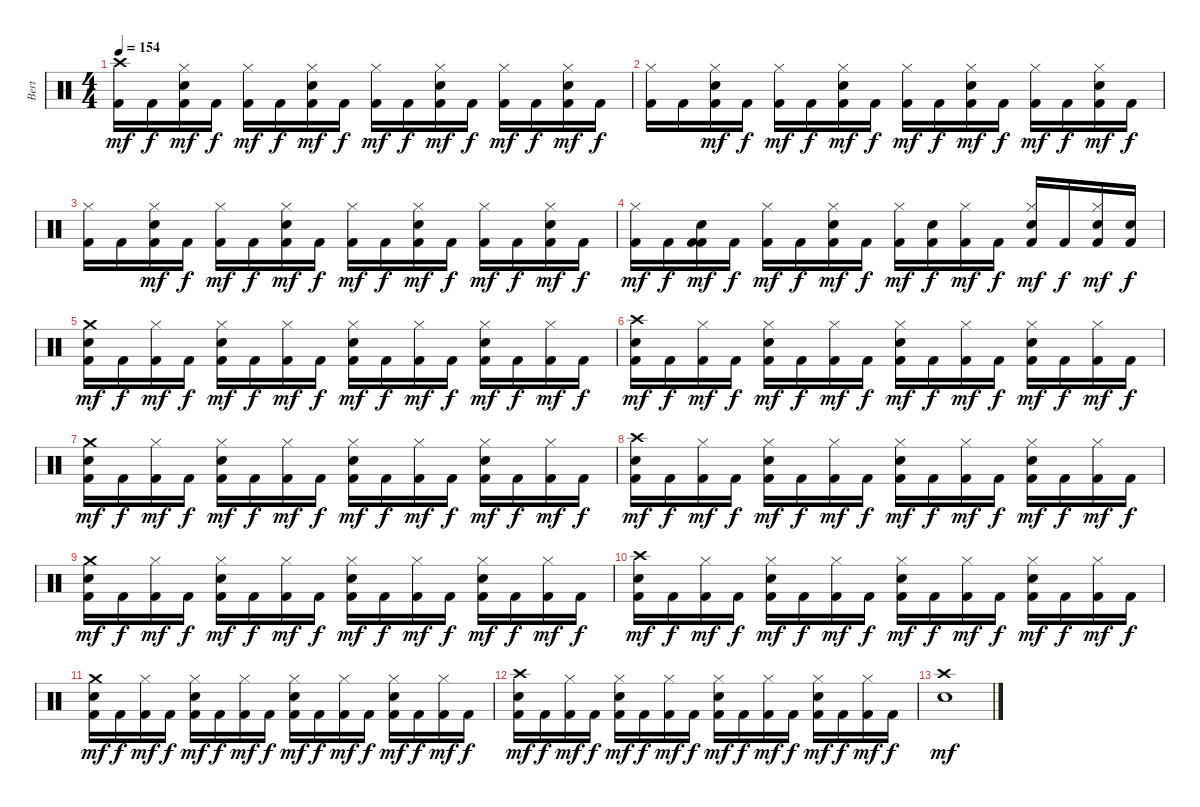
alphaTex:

\track ("Bert" "Bert") {instrument percussion}
\staff {score}
\articulation defaults
\ts (4 4)
\tempo 154
\clef neutral
\ks c
("Crash high (hit)" "Kick (hit) 2").16{dy mf} "Kick (hit) 2".16{dy f} ("Hi-Hat (closed)" "Snare (hit) 2" "Kick (hit) 2").16{dy mf} "Kick (hit) 2".16{dy f} ("Hi-Hat (closed)" "Kick (hit) 2").16{dy mf} "Kick (hit) 2".16{dy f} ("Hi-Hat (closed)" "Snare (hit) 2" "Kick (hit) 2").16{dy mf} "Kick (hit) 2".16{dy f} ("Hi-Hat (closed)" "Kick (hit) 2").16{dy mf} "Kick (hit) 2".16{dy f} ("Hi-Hat (closed)" "Snare (hit) 2" "Kick (hit) 2").16{dy mf} "Kick (hit) 2".16{dy f} ("Hi-Hat (closed)" "Kick (hit) 2").16{dy mf} "Kick (hit) 2".16{dy f} ("Hi-Hat (closed)" "Snare (hit) 2" "Kick (hit) 2").16{dy mf} "Kick (hit) 2".16{dy f} |
("Hi-Hat (closed)" "Kick (hit) 2").16 "Kick (hit) 2".16 ("Hi-Hat (closed)" "Snare (hit) 2" "Kick (hit) 2").16{dy mf} "Kick (hit) 2".16{dy f} ("Hi-Hat (closed)" "Kick (hit) 2").16{dy mf} "Kick (hit) 2".16{dy f} ("Hi-Hat (closed)" "Snare (hit) 2" "Kick (hit) 2").16{dy mf} "Kick (hit) 2".16{dy f} ("Hi-Hat (closed)" "Kick (hit) 2").16{dy mf} "Kick (hit) 2".16{dy f} ("Hi-Hat (closed)" "Snare (hit) 2" "Kick (hit) 2").16{dy mf} "Kick (hit) 2".16{dy f} ("Hi-Hat (closed)" "Kick (hit) 2").16{dy mf} "Kick (hit) 2".16{dy f} ("Hi-Hat (closed)" "Snare (hit) 2" "Kick (hit) 2").16{dy mf} "Kick (hit) 2".16{dy f} |
("Hi-Hat (closed)" "Kick (hit) 2").16 "Kick (hit) 2".16 ("Hi-Hat (closed)" "Snare (hit) 2" "Kick (hit) 2").16{dy mf} "Kick (hit) 2".16{dy f} ("Hi-Hat (closed)" "Kick (hit) 2").16{dy mf} "Kick (hit) 2".16{dy f} ("Hi-Hat (closed)" "Snare (hit) 2" "Kick (hit) 2").16{dy mf} "Kick (hit) 2".16{dy f} ("Hi-Hat (closed)" "Kick (hit) 2").16{dy mf} "Kick (hit) 2".16{dy f} ("Hi-Hat (closed)" "Snare (hit) 2" "Kick (hit) 2").16{dy mf} "Kick (hit) 2".16{dy f} ("Hi-Hat (closed)" "Kick (hit) 2").16{dy mf} "Kick (hit) 2".16{dy f} ("Hi-Hat (closed)" "Snare (hit) 2" "Kick (hit) 2").16{dy mf} "Kick (hit) 2".16{dy f} |
("Hi-Hat (closed)" "Kick (hit) 2").16{dy mf} "Kick (hit) 2".16{dy f} ("Kick (hit) 2" "Snare (hit) 2" "Kick (hit) 2").16{dy mf} "Kick (hit) 2".16{dy f} ("Hi-Hat (closed)" "Kick (hit) 2").16{dy mf} "Kick (hit) 2".16{dy f} ("Hi-Hat (closed)" "Snare (hit) 2" "Kick (hit) 2").16{dy mf} "Kick (hit) 2".16{dy f} ("Hi-Hat (closed)" "Kick (hit) 2").16{dy mf} ("Snare (hit) 2" "Kick (hit) 2").16{dy f} ("Hi-Hat (closed)" "Kick (hit) 2").16{dy mf} "Kick (hit) 2".16{dy f} ("Hi-Hat (closed)" "Snare (hit) 2" "Kick (hit) 2").16{dy mf} "Kick (hit) 2".16{dy f} ("Hi-Hat (closed)" "Snare (hit) 2" "Kick (hit) 2").16{dy mf} ("Snare (hit) 2" "Kick (hit) 2").16{dy f} |
("Crash medium (hit)" "Snare (hit) 2" "Kick (hit) 2").16{dy mf} "Kick (hit) 2".16{dy f} ("Hi-Hat (closed)" "Kick (hit) 2").16{dy mf} "Kick (hit) 2".16{dy f} ("Hi-Hat (closed)" "Snare (hit) 2" "Kick (hit) 2").16{dy mf} "Kick (hit) 2".16{dy f} ("Hi-Hat (closed)" "Kick (hit) 2").16{dy mf} "Kick (hit) 2".16{dy f} ("Hi-Hat (closed)" "Snare (hit) 2" "Kick (hit) 2").16{dy mf} "Kick (hit) 2".16{dy f} ("Hi-Hat (closed)" "Kick (hit) 2").16{dy mf} "Kick (hit) 2".16{dy f} ("Hi-Hat (closed)" "Snare (hit) 2" "Kick (hit) 2").16{dy mf} "Kick (hit) 2".16{dy f} ("Hi-Hat (closed)" "Kick (hit) 2").16{dy mf} "Kick (hit) 2".16{dy f} |
("Crash high (hit)" "Snare (hit) 2" "Kick (hit) 2").16{dy mf} "Kick (hit) 2".16{dy f} ("Hi-Hat (closed)" "Kick (hit) 2").16{dy mf} "Kick (hit) 2".16{dy f} ("Hi-Hat (closed)" "Snare (hit) 2" "Kick (hit) 2").16{dy mf} "Kick (hit) 2".16{dy f} ("Hi-Hat (closed)" "Kick (hit) 2").16{dy mf} "Kick (hit) 2".16{dy f} ("Hi-Hat (closed)" "Snare (hit) 2" "Kick (hit) 2").16{dy mf} "Kick (hit) 2".16{dy f} ("Hi-Hat (closed)" "Kick (hit) 2").16{dy mf} "Kick (hit) 2".16{dy f} ("Hi-Hat (closed)" "Snare (hit) 2" "Kick (hit) 2").16{dy mf} "Kick (hit) 2".16{dy f} ("Hi-Hat (closed)" "Kick (hit) 2").16{dy mf} "Kick (hit) 2".16{dy f} |
("Crash medium (hit)" "Snare (hit) 2" "Kick (hit) 2").16{dy mf} "Kick (hit) 2".16{dy f} ("Hi-Hat (closed)" "Kick (hit) 2").16{dy mf} "Kick (hit) 2".16{dy f} ("Hi-Hat (closed)" "Snare (hit) 2" "Kick (hit) 2").16{dy mf} "Kick (hit) 2".16{dy f} ("Hi-Hat (closed)" "Kick (hit) 2").16{dy mf} "Kick (hit) 2".16{dy f} ("Hi-Hat (closed)" "Snare (hit) 2" "Kick (hit) 2").16{dy mf} "Kick (hit) 2".16{dy f} ("Hi-Hat (closed)" "Kick (hit) 2").16{dy mf} "Kick (hit) 2".16{dy f} ("Hi-Hat (closed)" "Snare (hit) 2" "Kick (hit) 2").16{dy mf} "Kick (hit) 2".16{dy f} ("Hi-Hat (closed)" "Kick (hit) 2").16{dy mf} "Kick (hit) 2".16{dy f} |
("Crash high (hit)" "Snare (hit) 2" "Kick (hit) 2").16{dy mf} "Kick (hit) 2".16{dy f} ("Hi-Hat (closed)" "Kick (hit) 2").16{dy mf} "Kick (hit) 2".16{dy f} ("Hi-Hat (closed)" "Snare (hit) 2" "Kick (hit) 2").16{dy mf} "Kick (hit) 2".16{dy f} ("Hi-Hat (closed)" "Kick (hit) 2").16{dy mf} "Kick (hit) 2".16{dy f} ("Hi-Hat (closed)" "Snare (hit) 2" "Kick (hit) 2").16{dy mf} "Kick (hit) 2".16{dy f} ("Hi-Hat (closed)" "Kick (hit) 2").16{dy mf} "Kick (hit) 2".16{dy f} ("Hi-Hat (closed)" "Snare (hit) 2" "Kick (hit) 2").16{dy mf} "Kick (hit) 2".16{dy f} ("Hi-Hat (closed)" "Kick (hit) 2").16{dy mf} "Kick (hit) 2".16{dy f} |
("Crash medium (hit)" "Snare (hit) 2" "Kick (hit) 2").16{dy mf} "Kick (hit) 2".16{dy f} ("Hi-Hat (closed)" "Kick (hit) 2").16{dy mf} "Kick (hit) 2".16{dy f} ("Hi-Hat (closed)" "Snare (hit) 2" "Kick (hit) 2").16{dy mf} "Kick (hit) 2".16{dy f} ("Hi-Hat (closed)" "Kick (hit) 2").16{dy mf} "Kick (hit) 2".16{dy f} ("Hi-Hat (closed)" "Snare (hit) 2" "Kick (hit) 2").16{dy mf} "Kick (hit) 2".16{dy f} ("Hi-Hat (closed)" "Kick (hit) 2").16{dy mf} "Kick (hit) 2".16{dy f} ("Hi-Hat (closed)" "Snare (hit) 2" "Kick (hit) 2").16{dy mf} "Kick (hit) 2".16{dy f} ("Hi-Hat (closed)" "Kick (hit) 2").16{dy mf} "Kick (hit) 2".16{dy f} |
("Crash high (hit)" "Snare (hit) 2" "Kick (hit) 2").16{dy mf} "Kick (hit) 2".16{dy f} ("Hi-Hat (closed)" "Kick (hit) 2").16{dy mf} "Kick (hit) 2".16{dy f} ("Hi-Hat (closed)" "Snare (hit) 2" "Kick (hit) 2").16{dy mf} "Kick (hit) 2".16{dy f} ("Hi-Hat (closed)" "Kick (hit) 2").16{dy mf} "Kick (hit) 2".16{dy f} ("Hi-Hat (closed)" "Snare (hit) 2" "Kick (hit) 2").16{dy mf} "Kick (hit) 2".16{dy f} ("Hi-Hat (closed)" "Kick (hit) 2").16{dy mf} "Kick (hit) 2".16{dy f} ("Hi-Hat (closed)" "Snare (hit) 2" "Kick (hit) 2").16{dy mf} "Kick (hit) 2".16{dy f} ("Hi-Hat (closed)" "Kick (hit) 2").16{dy mf} "Kick (hit) 2".16{dy f} |
("Crash medium (hit)" "Snare (hit) 2" "Kick (hit) 2").16{dy mf} "Kick (hit) 2".16{dy f} ("Hi-Hat (closed)" "Kick (hit) 2").16{dy mf} "Kick (hit) 2".16{dy f} ("Hi-Hat (closed)" "Snare (hit) 2" "Kick (hit) 2").16{dy mf} "Kick (hit) 2".16{dy f} ("Hi-Hat (closed)" "Kick (hit) 2").16{dy mf} "Kick (hit) 2".16{dy f} ("Hi-Hat (closed)" "Snare (hit) 2" "Kick (hit) 2").16{dy mf} "Kick (hit) 2".16{dy f} ("Hi-Hat (closed)" "Kick (hit) 2").16{dy mf} "Kick (hit) 2".16{dy f} ("Hi-Hat (closed)" "Snare (hit) 2" "Kick (hit) 2").16{dy mf} "Kick (hit) 2".16{dy f} ("Hi-Hat (closed)" "Kick (hit) 2").16{dy mf} "Kick (hit) 2".16{dy f} |
("Crash high (hit)" "Snare (hit) 2" "Kick (hit) 2").16{dy mf} "Kick (hit) 2".16{dy f} ("Hi-Hat (closed)" "Kick (hit) 2").16{dy mf} "Kick (hit) 2".16{dy f} ("Hi-Hat (closed)" "Snare (hit) 2" "Kick (hit) 2").16{dy mf} "Kick (hit) 2".16{dy f} ("Hi-Hat (closed)" "Kick (hit) 2").16{dy mf} "Kick (hit) 2".16{dy f} ("Hi-Hat (closed)" "Snare (hit) 2" "Kick (hit) 2").16{dy mf} "Kick (hit) 2".16{dy f} ("Hi-Hat (closed)" "Kick (hit) 2").16{dy mf} "Kick (hit) 2".16{dy f} ("Hi-Hat (closed)" "Snare (hit) 2" "Kick (hit) 2").16{dy mf} "Kick (hit) 2".16{dy f} ("Hi-Hat (closed)" "Kick (hit) 2").16{dy mf} "Kick (hit) 2".16{dy f} |
("Snare (hit) 2" "Crash high (hit)").1{dy mf}
